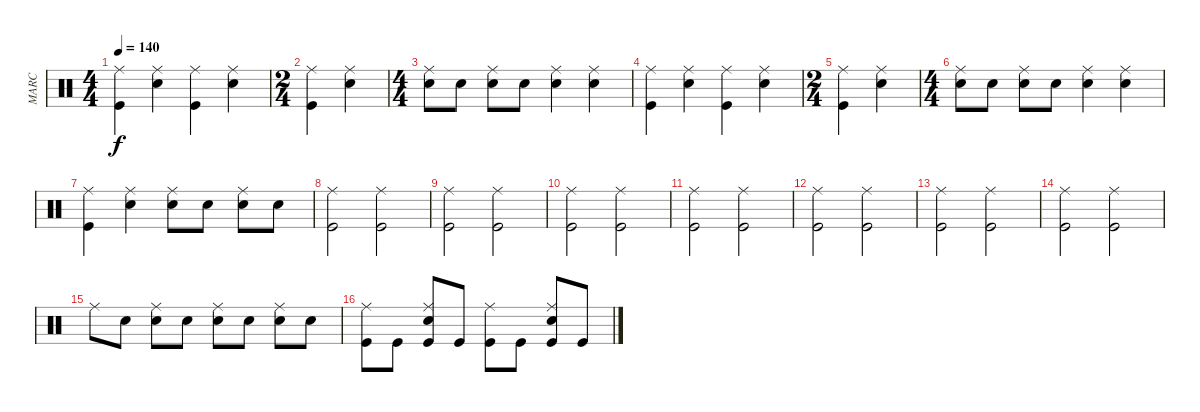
\track ("MARC" "MARC") {instrument percussion}
\staff {score}
\articulation defaults
\ts (4 4)
\tempo 140
\clef neutral
\ks c
("Kick (hit)" "Ride (middle)").4{dy f} ("Snare (hit) 2" "Ride (middle)").4 ("Kick (hit)" "Ride (middle)").4 ("Snare (hit) 2" "Ride (middle)").4 |
\ts (2 4)
("Kick (hit)" "Ride (middle)").4 ("Snare (hit) 2" "Ride (middle)").4 |
\ts (4 4)
("Snare (hit) 2" "Ride (middle)").8 "Snare (hit) 2".8 ("Snare (hit) 2" "Ride (middle)").8 "Snare (hit) 2".8 ("Snare (hit) 2" "Ride (middle)").4 ("Snare (hit) 2" "Ride (middle)").4 |
("Kick (hit)" "Ride (middle)").4 ("Snare (hit) 2" "Ride (middle)").4 ("Kick (hit)" "Ride (middle)").4 ("Snare (hit) 2" "Ride (middle)").4 |
\ts (2 4)
("Kick (hit)" "Ride (middle)").4 ("Snare (hit) 2" "Ride (middle)").4 |
\ts (4 4)
("Snare (hit) 2" "Ride (middle)").8 "Snare (hit) 2".8 ("Snare (hit) 2" "Ride (middle)").8 "Snare (hit) 2".8 ("Snare (hit) 2" "Ride (middle)").4 ("Snare (hit) 2" "Ride (middle)").4 |
("Kick (hit)" "Ride (middle)").4 ("Snare (hit) 2" "Ride (middle)").4 ("Snare (hit) 2" "Ride (middle)").8 "Snare (hit) 2".8 ("Snare (hit) 2" "Ride (middle)").8 "Snare (hit) 2".8 |
("Kick (hit)" "Ride (middle)").2 ("Kick (hit)" "Ride (middle)").2 |
("Kick (hit)" "Ride (middle)").2 ("Kick (hit)" "Ride (middle)").2 |
("Kick (hit)" "Ride (middle)").2 ("Kick (hit)" "Ride (middle)").2 |
("Kick (hit)" "Ride (middle)").2 ("Kick (hit)" "Ride (middle)").2 |
("Kick (hit)" "Ride (middle)").2 ("Kick (hit)" "Ride (middle)").2 |
("Kick (hit)" "Ride (middle)").2 ("Kick (hit)" "Ride (middle)").2 |
("Kick (hit)" "Ride (middle)").2 ("Kick (hit)" "Ride (middle)").2 |
"Ride (middle)".8 "Snare (hit) 2".8 ("Snare (hit) 2" "Ride (middle)").8 "Snare (hit) 2".8 ("Snare (hit) 2" "Ride (middle)").8 "Snare (hit) 2".8 ("Snare (hit) 2" "Ride (middle)").8 "Snare (hit) 2".8 |
("Kick (hit)" "Ride (middle)").8 "Kick (hit)".8 ("Kick (hit)" "Snare (hit) 2" "Ride (middle)").8 "Kick (hit)".8 ("Kick (hit)" "Ride (middle)").8 "Kick (hit)".8 ("Kick (hit)" "Snare (hit) 2" "Ride (middle)").8 "Kick (hit)".8
